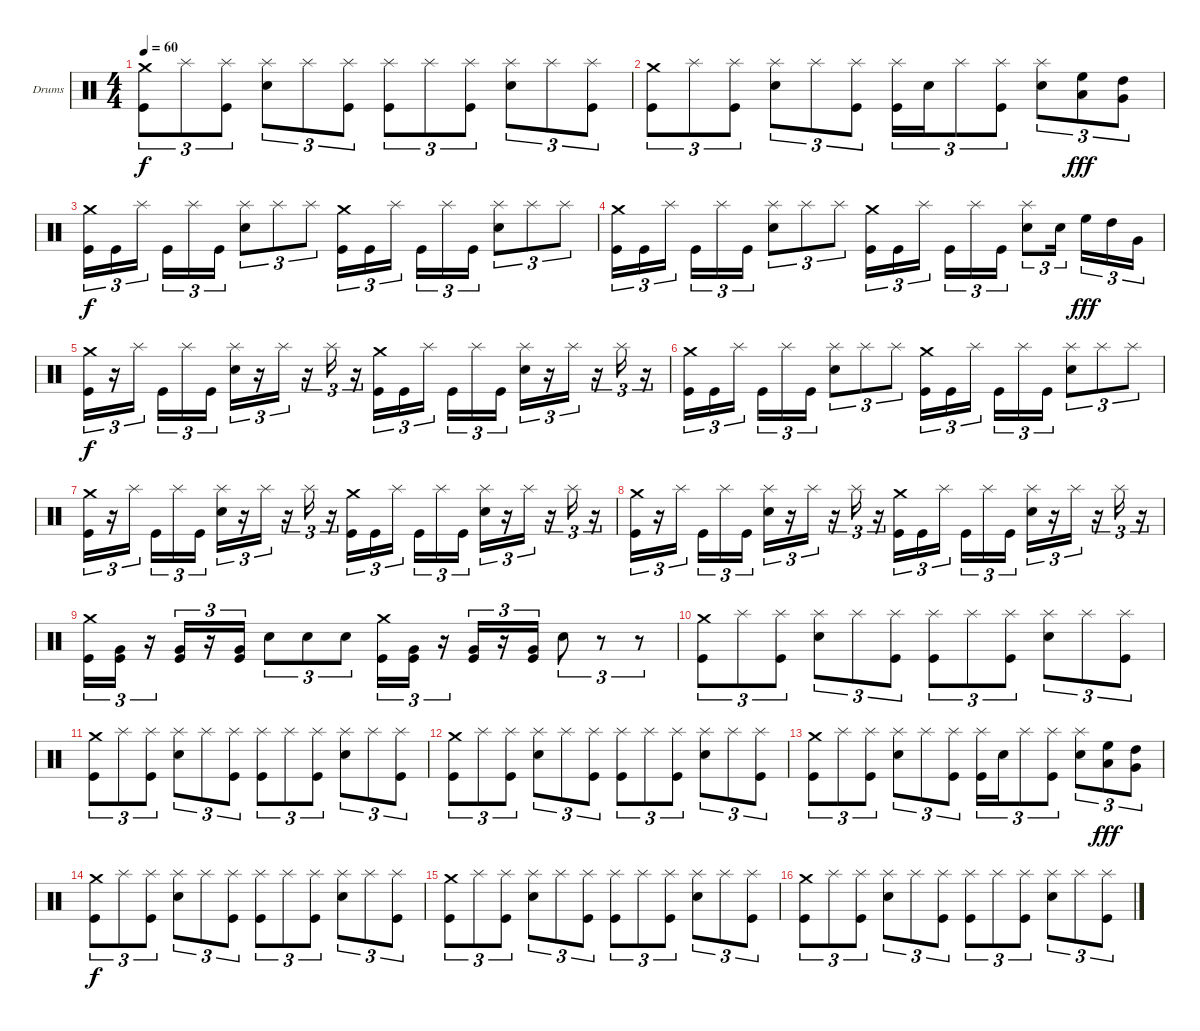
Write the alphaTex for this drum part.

\bracketExtendMode groupsimilarinstruments
\firstSystemTrackNameOrientation horizontal
\otherSystemsTrackNameOrientation horizontal
\track ("Drumkit" "Drums") {instrument percussion}
\staff {score}
\articulation defaults
\ts (4 4)
\tempo 60
\clef neutral
\ks c
("Crash medium (hit)" "Kick (hit)").8{tu (3 2) dy f} "Splash (hit)".8{tu (3 2)} ("Splash (hit)" "Kick (hit)").8{tu (3 2)} ("Splash (hit)" "Snare (hit) 2").8{tu (3 2)} "Splash (hit)".8{tu (3 2)} ("Splash (hit)" "Kick (hit)").8{tu (3 2)} ("Splash (hit)" "Kick (hit)").8{tu (3 2)} "Splash (hit)".8{tu (3 2)} ("Splash (hit)" "Kick (hit)").8{tu (3 2)} ("Splash (hit)" "Snare (hit) 2").8{tu (3 2)} "Splash (hit)".8{tu (3 2)} ("Splash (hit)" "Kick (hit)").8{tu (3 2)} |
("Crash medium (hit)" "Kick (hit)").8{tu (3 2)} "Splash (hit)".8{tu (3 2)} ("Splash (hit)" "Kick (hit)").8{tu (3 2)} ("Splash (hit)" "Snare (hit) 2").8{tu (3 2)} "Splash (hit)".8{tu (3 2)} ("Splash (hit)" "Kick (hit)").8{tu (3 2)} ("Splash (hit)" "Kick (hit)").16{tu (3 2)} "Snare (hit) 2".16{tu (3 2)} "Splash (hit)".8{tu (3 2)} ("Splash (hit)" "Kick (hit)").8{tu (3 2)} ("Splash (hit)" "Snare (hit) 2").8{tu (3 2)} ("High Floor Tom (hit)" "Low Tom (hit)").8{tu (3 2) dy fff} ("High Tom (hit)" "Very Low Tom (hit)").8{tu (3 2)} |
("Crash medium (hit)" "Kick (hit)").16{tu (3 2) dy f} "Kick (hit)".16{tu (3 2)} "Splash (hit)".16{tu (3 2)} "Kick (hit)".16{tu (3 2)} "Splash (hit)".16{tu (3 2)} "Kick (hit)".16{tu (3 2)} ("Splash (hit)" "Snare (hit) 2").8{tu (3 2)} "Splash (hit)".8{tu (3 2)} "Splash (hit)".8{tu (3 2)} ("Crash medium (hit)" "Kick (hit)").16{tu (3 2)} "Kick (hit)".16{tu (3 2)} "Splash (hit)".16{tu (3 2)} "Kick (hit)".16{tu (3 2)} "Splash (hit)".16{tu (3 2)} "Kick (hit)".16{tu (3 2)} ("Splash (hit)" "Snare (hit) 2").8{tu (3 2)} "Splash (hit)".8{tu (3 2)} "Splash (hit)".8{tu (3 2)} |
("Crash medium (hit)" "Kick (hit)").16{tu (3 2)} "Kick (hit)".16{tu (3 2)} "Splash (hit)".16{tu (3 2)} "Kick (hit)".16{tu (3 2)} "Splash (hit)".16{tu (3 2)} "Kick (hit)".16{tu (3 2)} ("Splash (hit)" "Snare (hit) 2").8{tu (3 2)} "Splash (hit)".8{tu (3 2)} "Splash (hit)".8{tu (3 2)} ("Crash medium (hit)" "Kick (hit)").16{tu (3 2)} "Kick (hit)".16{tu (3 2)} "Splash (hit)".16{tu (3 2)} "Kick (hit)".16{tu (3 2)} "Splash (hit)".16{tu (3 2)} "Kick (hit)".16{tu (3 2)} ("Splash (hit)" "Snare (hit) 2").8{tu (3 2)} "Snare (hit) 2".16{tu (3 2)} "High Floor Tom (hit)".16{tu (3 2) dy fff} "High Tom (hit)".16{tu (3 2)} "Very Low Tom (hit)".16{tu (3 2)} |
("Crash medium (hit)" "Kick (hit)").16{tu (3 2) dy f} r.16{tu (3 2)} "Splash (hit)".16{tu (3 2)} "Kick (hit)".16{tu (3 2)} "Splash (hit)".16{tu (3 2)} "Kick (hit)".16{tu (3 2)} ("Splash (hit)" "Snare (hit) 2").16{tu (3 2)} r.16{tu (3 2)} "Splash (hit)".16{tu (3 2)} r.16{tu (3 2)} "Splash (hit)".16{tu (3 2)} r.16{tu (3 2)} ("Crash medium (hit)" "Kick (hit)").16{tu (3 2)} "Kick (hit)".16{tu (3 2)} "Splash (hit)".16{tu (3 2)} "Kick (hit)".16{tu (3 2)} "Splash (hit)".16{tu (3 2)} "Kick (hit)".16{tu (3 2)} ("Splash (hit)" "Snare (hit) 2").16{tu (3 2)} r.16{tu (3 2)} "Splash (hit)".16{tu (3 2)} r.16{tu (3 2)} "Splash (hit)".16{tu (3 2)} r.16{tu (3 2)} |
("Crash medium (hit)" "Kick (hit)").16{tu (3 2)} "Kick (hit)".16{tu (3 2)} "Splash (hit)".16{tu (3 2)} "Kick (hit)".16{tu (3 2)} "Splash (hit)".16{tu (3 2)} "Kick (hit)".16{tu (3 2)} ("Splash (hit)" "Snare (hit) 2").8{tu (3 2)} "Splash (hit)".8{tu (3 2)} "Splash (hit)".8{tu (3 2)} ("Crash medium (hit)" "Kick (hit)").16{tu (3 2)} "Kick (hit)".16{tu (3 2)} "Splash (hit)".16{tu (3 2)} "Kick (hit)".16{tu (3 2)} "Splash (hit)".16{tu (3 2)} "Kick (hit)".16{tu (3 2)} ("Splash (hit)" "Snare (hit) 2").8{tu (3 2)} "Splash (hit)".8{tu (3 2)} "Splash (hit)".8{tu (3 2)} |
("Crash medium (hit)" "Kick (hit)").16{tu (3 2)} r.16{tu (3 2)} "Splash (hit)".16{tu (3 2)} "Kick (hit)".16{tu (3 2)} "Splash (hit)".16{tu (3 2)} "Kick (hit)".16{tu (3 2)} ("Splash (hit)" "Snare (hit) 2").16{tu (3 2)} r.16{tu (3 2)} "Splash (hit)".16{tu (3 2)} r.16{tu (3 2)} "Splash (hit)".16{tu (3 2)} r.16{tu (3 2)} ("Crash medium (hit)" "Kick (hit)").16{tu (3 2)} "Kick (hit)".16{tu (3 2)} "Splash (hit)".16{tu (3 2)} "Kick (hit)".16{tu (3 2)} "Splash (hit)".16{tu (3 2)} "Kick (hit)".16{tu (3 2)} ("Splash (hit)" "Snare (hit) 2").16{tu (3 2)} r.16{tu (3 2)} "Splash (hit)".16{tu (3 2)} r.16{tu (3 2)} "Splash (hit)".16{tu (3 2)} r.16{tu (3 2)} |
("Crash medium (hit)" "Kick (hit)").16{tu (3 2)} r.16{tu (3 2)} "Splash (hit)".16{tu (3 2)} "Kick (hit)".16{tu (3 2)} "Splash (hit)".16{tu (3 2)} "Kick (hit)".16{tu (3 2)} ("Splash (hit)" "Snare (hit) 2").16{tu (3 2)} r.16{tu (3 2)} "Splash (hit)".16{tu (3 2)} r.16{tu (3 2)} "Splash (hit)".16{tu (3 2)} r.16{tu (3 2)} ("Crash medium (hit)" "Kick (hit)").16{tu (3 2)} "Kick (hit)".16{tu (3 2)} "Splash (hit)".16{tu (3 2)} "Kick (hit)".16{tu (3 2)} "Splash (hit)".16{tu (3 2)} "Kick (hit)".16{tu (3 2)} ("Splash (hit)" "Snare (hit) 2").16{tu (3 2)} r.16{tu (3 2)} "Splash (hit)".16{tu (3 2)} r.16{tu (3 2)} "Splash (hit)".16{tu (3 2)} r.16{tu (3 2)} |
("Crash medium (hit)" "Kick (hit)").16{tu (3 2)} ("Very Low Tom (hit)" "Kick (hit)").16{tu (3 2)} r.16{tu (3 2)} ("Very Low Tom (hit)" "Kick (hit)").16{tu (3 2)} r.16{tu (3 2)} ("Very Low Tom (hit)" "Kick (hit)").16{tu (3 2)} "Snare (hit) 2".8{tu (3 2)} "Snare (hit) 2".8{tu (3 2)} "Snare (hit) 2".8{tu (3 2)} ("Crash medium (hit)" "Kick (hit)").16{tu (3 2)} ("Very Low Tom (hit)" "Kick (hit)").16{tu (3 2)} r.16{tu (3 2)} ("Very Low Tom (hit)" "Kick (hit)").16{tu (3 2)} r.16{tu (3 2)} ("Very Low Tom (hit)" "Kick (hit)").16{tu (3 2)} "Snare (hit) 2".8{tu (3 2)} r.8{tu (3 2)} r.8{tu (3 2)} |
("Crash medium (hit)" "Kick (hit)").8{tu (3 2)} "Splash (hit)".8{tu (3 2)} ("Splash (hit)" "Kick (hit)").8{tu (3 2)} ("Splash (hit)" "Snare (hit) 2").8{tu (3 2)} "Splash (hit)".8{tu (3 2)} ("Splash (hit)" "Kick (hit)").8{tu (3 2)} ("Splash (hit)" "Kick (hit)").8{tu (3 2)} "Splash (hit)".8{tu (3 2)} ("Splash (hit)" "Kick (hit)").8{tu (3 2)} ("Splash (hit)" "Snare (hit) 2").8{tu (3 2)} "Splash (hit)".8{tu (3 2)} ("Splash (hit)" "Kick (hit)").8{tu (3 2)} |
("Crash medium (hit)" "Kick (hit)").8{tu (3 2)} "Splash (hit)".8{tu (3 2)} ("Splash (hit)" "Kick (hit)").8{tu (3 2)} ("Splash (hit)" "Snare (hit) 2").8{tu (3 2)} "Splash (hit)".8{tu (3 2)} ("Splash (hit)" "Kick (hit)").8{tu (3 2)} ("Splash (hit)" "Kick (hit)").8{tu (3 2)} "Splash (hit)".8{tu (3 2)} ("Splash (hit)" "Kick (hit)").8{tu (3 2)} ("Splash (hit)" "Snare (hit) 2").8{tu (3 2)} "Splash (hit)".8{tu (3 2)} ("Splash (hit)" "Kick (hit)").8{tu (3 2)} |
("Crash medium (hit)" "Kick (hit)").8{tu (3 2)} "Splash (hit)".8{tu (3 2)} ("Splash (hit)" "Kick (hit)").8{tu (3 2)} ("Splash (hit)" "Snare (hit) 2").8{tu (3 2)} "Splash (hit)".8{tu (3 2)} ("Splash (hit)" "Kick (hit)").8{tu (3 2)} ("Splash (hit)" "Kick (hit)").8{tu (3 2)} "Splash (hit)".8{tu (3 2)} ("Splash (hit)" "Kick (hit)").8{tu (3 2)} ("Splash (hit)" "Snare (hit) 2").8{tu (3 2)} "Splash (hit)".8{tu (3 2)} ("Splash (hit)" "Kick (hit)").8{tu (3 2)} |
("Crash medium (hit)" "Kick (hit)").8{tu (3 2)} "Splash (hit)".8{tu (3 2)} ("Splash (hit)" "Kick (hit)").8{tu (3 2)} ("Splash (hit)" "Snare (hit) 2").8{tu (3 2)} "Splash (hit)".8{tu (3 2)} ("Splash (hit)" "Kick (hit)").8{tu (3 2)} ("Splash (hit)" "Kick (hit)").16{tu (3 2)} "Snare (hit) 2".16{tu (3 2)} "Splash (hit)".8{tu (3 2)} ("Splash (hit)" "Kick (hit)").8{tu (3 2)} ("Splash (hit)" "Snare (hit) 2").8{tu (3 2)} ("High Floor Tom (hit)" "Low Tom (hit)").8{tu (3 2) dy fff} ("High Tom (hit)" "Very Low Tom (hit)").8{tu (3 2)} |
("Crash medium (hit)" "Kick (hit)").8{tu (3 2) dy f} "Splash (hit)".8{tu (3 2)} ("Splash (hit)" "Kick (hit)").8{tu (3 2)} ("Splash (hit)" "Snare (hit) 2").8{tu (3 2)} "Splash (hit)".8{tu (3 2)} ("Splash (hit)" "Kick (hit)").8{tu (3 2)} ("Splash (hit)" "Kick (hit)").8{tu (3 2)} "Splash (hit)".8{tu (3 2)} ("Splash (hit)" "Kick (hit)").8{tu (3 2)} ("Splash (hit)" "Snare (hit) 2").8{tu (3 2)} "Splash (hit)".8{tu (3 2)} ("Splash (hit)" "Kick (hit)").8{tu (3 2)} |
("Crash medium (hit)" "Kick (hit)").8{tu (3 2)} "Splash (hit)".8{tu (3 2)} ("Splash (hit)" "Kick (hit)").8{tu (3 2)} ("Splash (hit)" "Snare (hit) 2").8{tu (3 2)} "Splash (hit)".8{tu (3 2)} ("Splash (hit)" "Kick (hit)").8{tu (3 2)} ("Splash (hit)" "Kick (hit)").8{tu (3 2)} "Splash (hit)".8{tu (3 2)} ("Splash (hit)" "Kick (hit)").8{tu (3 2)} ("Splash (hit)" "Snare (hit) 2").8{tu (3 2)} "Splash (hit)".8{tu (3 2)} ("Splash (hit)" "Kick (hit)").8{tu (3 2)} |
("Crash medium (hit)" "Kick (hit)").8{tu (3 2)} "Splash (hit)".8{tu (3 2)} ("Splash (hit)" "Kick (hit)").8{tu (3 2)} ("Splash (hit)" "Snare (hit) 2").8{tu (3 2)} "Splash (hit)".8{tu (3 2)} ("Splash (hit)" "Kick (hit)").8{tu (3 2)} ("Splash (hit)" "Kick (hit)").8{tu (3 2)} "Splash (hit)".8{tu (3 2)} ("Splash (hit)" "Kick (hit)").8{tu (3 2)} ("Splash (hit)" "Snare (hit) 2").8{tu (3 2)} "Splash (hit)".8{tu (3 2)} ("Splash (hit)" "Kick (hit)").8{tu (3 2)}
